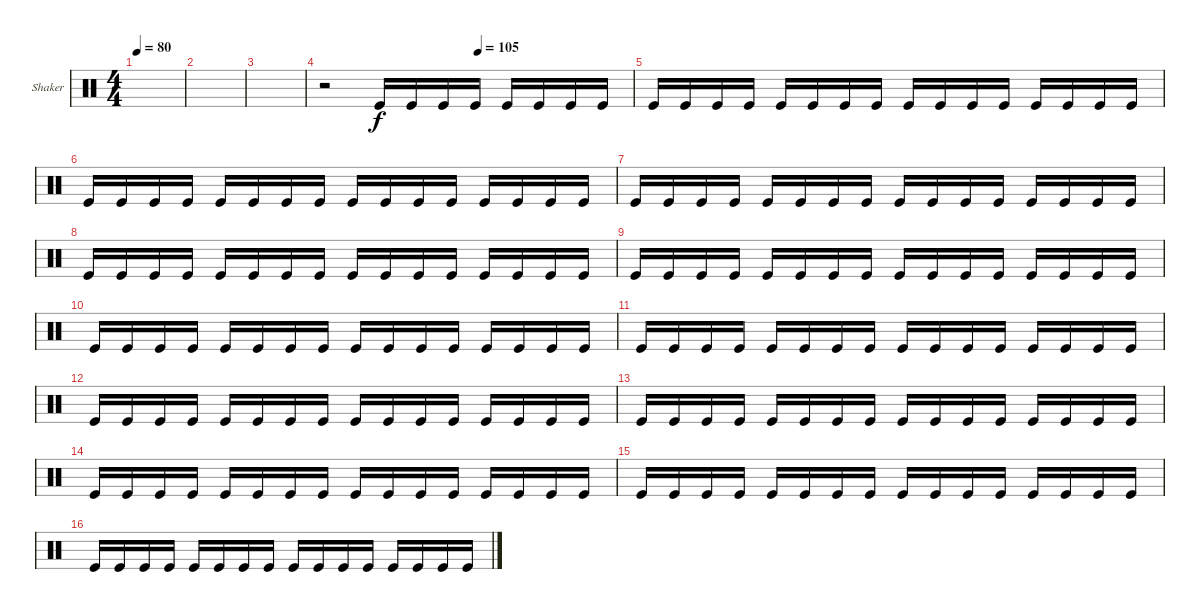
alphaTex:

\bracketExtendMode groupsimilarinstruments
\firstSystemTrackNameOrientation horizontal
\otherSystemsTrackNameOrientation horizontal
\track ("Shaker" "Shaker") {instrument percussion}
\staff {score}
\articulation defaults
\ts (4 4)
\tempo 80
\clef neutral
\scale
0.333333
\ks c
|
\scale
0.333333 |
\scale
0.333333 |
\tempo (105 0.5)
\scale
0.333333 r.2 "Kick (hit)".16 "Kick (hit)".16 "Kick (hit)".16 "Kick (hit)".16 "Kick (hit)".16 "Kick (hit)".16 "Kick (hit)".16 "Kick (hit)".16 |
\scale
0.333333 "Kick (hit)".16 "Kick (hit)".16 "Kick (hit)".16 "Kick (hit)".16 "Kick (hit)".16 "Kick (hit)".16 "Kick (hit)".16 "Kick (hit)".16 "Kick (hit)".16 "Kick (hit)".16 "Kick (hit)".16 "Kick (hit)".16 "Kick (hit)".16 "Kick (hit)".16 "Kick (hit)".16 "Kick (hit)".16 |
\scale
0.333333 "Kick (hit)".16 "Kick (hit)".16 "Kick (hit)".16 "Kick (hit)".16 "Kick (hit)".16 "Kick (hit)".16 "Kick (hit)".16 "Kick (hit)".16 "Kick (hit)".16 "Kick (hit)".16 "Kick (hit)".16 "Kick (hit)".16 "Kick (hit)".16 "Kick (hit)".16 "Kick (hit)".16 "Kick (hit)".16 |
\scale
0.333333 "Kick (hit)".16 "Kick (hit)".16 "Kick (hit)".16 "Kick (hit)".16 "Kick (hit)".16 "Kick (hit)".16 "Kick (hit)".16 "Kick (hit)".16 "Kick (hit)".16 "Kick (hit)".16 "Kick (hit)".16 "Kick (hit)".16 "Kick (hit)".16 "Kick (hit)".16 "Kick (hit)".16 "Kick (hit)".16 |
\scale
0.333333 "Kick (hit)".16 "Kick (hit)".16 "Kick (hit)".16 "Kick (hit)".16 "Kick (hit)".16 "Kick (hit)".16 "Kick (hit)".16 "Kick (hit)".16 "Kick (hit)".16 "Kick (hit)".16 "Kick (hit)".16 "Kick (hit)".16 "Kick (hit)".16 "Kick (hit)".16 "Kick (hit)".16 "Kick (hit)".16 |
\scale
0.333333 "Kick (hit)".16 "Kick (hit)".16 "Kick (hit)".16 "Kick (hit)".16 "Kick (hit)".16 "Kick (hit)".16 "Kick (hit)".16 "Kick (hit)".16 "Kick (hit)".16 "Kick (hit)".16 "Kick (hit)".16 "Kick (hit)".16 "Kick (hit)".16 "Kick (hit)".16 "Kick (hit)".16 "Kick (hit)".16 |
\scale
0.333333 "Kick (hit)".16 "Kick (hit)".16 "Kick (hit)".16 "Kick (hit)".16 "Kick (hit)".16 "Kick (hit)".16 "Kick (hit)".16 "Kick (hit)".16 "Kick (hit)".16 "Kick (hit)".16 "Kick (hit)".16 "Kick (hit)".16 "Kick (hit)".16 "Kick (hit)".16 "Kick (hit)".16 "Kick (hit)".16 |
\scale
0.333333 "Kick (hit)".16 "Kick (hit)".16 "Kick (hit)".16 "Kick (hit)".16 "Kick (hit)".16 "Kick (hit)".16 "Kick (hit)".16 "Kick (hit)".16 "Kick (hit)".16 "Kick (hit)".16 "Kick (hit)".16 "Kick (hit)".16 "Kick (hit)".16 "Kick (hit)".16 "Kick (hit)".16 "Kick (hit)".16 |
\scale
0.333333 "Kick (hit)".16 "Kick (hit)".16 "Kick (hit)".16 "Kick (hit)".16 "Kick (hit)".16 "Kick (hit)".16 "Kick (hit)".16 "Kick (hit)".16 "Kick (hit)".16 "Kick (hit)".16 "Kick (hit)".16 "Kick (hit)".16 "Kick (hit)".16 "Kick (hit)".16 "Kick (hit)".16 "Kick (hit)".16 |
\scale
0.333333 "Kick (hit)".16 "Kick (hit)".16 "Kick (hit)".16 "Kick (hit)".16 "Kick (hit)".16 "Kick (hit)".16 "Kick (hit)".16 "Kick (hit)".16 "Kick (hit)".16 "Kick (hit)".16 "Kick (hit)".16 "Kick (hit)".16 "Kick (hit)".16 "Kick (hit)".16 "Kick (hit)".16 "Kick (hit)".16 |
\scale
0.333333 "Kick (hit)".16 "Kick (hit)".16 "Kick (hit)".16 "Kick (hit)".16 "Kick (hit)".16 "Kick (hit)".16 "Kick (hit)".16 "Kick (hit)".16 "Kick (hit)".16 "Kick (hit)".16 "Kick (hit)".16 "Kick (hit)".16 "Kick (hit)".16 "Kick (hit)".16 "Kick (hit)".16 "Kick (hit)".16 |
\scale
0.333333 "Kick (hit)".16 "Kick (hit)".16 "Kick (hit)".16 "Kick (hit)".16 "Kick (hit)".16 "Kick (hit)".16 "Kick (hit)".16 "Kick (hit)".16 "Kick (hit)".16 "Kick (hit)".16 "Kick (hit)".16 "Kick (hit)".16 "Kick (hit)".16 "Kick (hit)".16 "Kick (hit)".16 "Kick (hit)".16 |
\scale
0.333333 "Kick (hit)".16 "Kick (hit)".16 "Kick (hit)".16 "Kick (hit)".16 "Kick (hit)".16 "Kick (hit)".16 "Kick (hit)".16 "Kick (hit)".16 "Kick (hit)".16 "Kick (hit)".16 "Kick (hit)".16 "Kick (hit)".16 "Kick (hit)".16 "Kick (hit)".16 "Kick (hit)".16 "Kick (hit)".16
